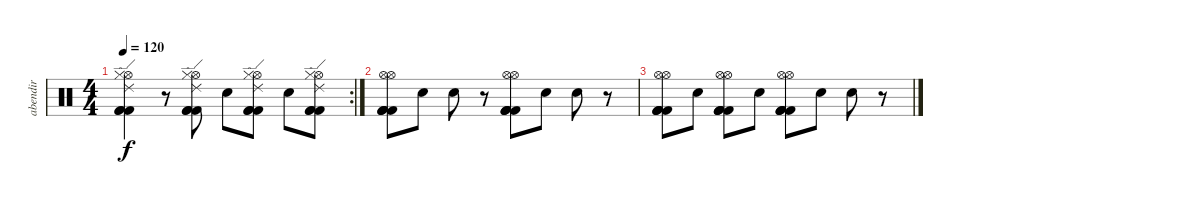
\track ("abendir" "abendir") {instrument percussion}
\staff {score}
\articulation defaults
\rc 2
\ts (4 4)
\tempo 120
\clef neutral
\ks c
("Hi-Hat (open)" "Ride (edge) 2" "Kick (hit) 2" "Kick (hit) 2" "Kick (hit) 2" "Hi-Hat (closed)").4{dy f} r.8 ("Hi-Hat (open)" "Ride (edge) 2" "Kick (hit) 2" "Kick (hit) 2" "Kick (hit) 2" "Hi-Hat (closed)").8 "Electric Snare (hit)".8 ("Hi-Hat (open)" "Ride (edge) 2" "Kick (hit) 2" "Kick (hit) 2" "Kick (hit) 2" "Hi-Hat (closed)").8 "Electric Snare (hit)".8 ("Hi-Hat (open)" "Ride (edge) 2" "Kick (hit) 2" "Kick (hit) 2" "Kick (hit) 2" "Hi-Hat (closed)").8 |
("Hi-Hat (open)" "Kick (hit) 2" "Kick (hit) 2" "Kick (hit) 2" "Kick (hit) 2" "Hi-Hat (open)").8 "Electric Snare (hit)".8 "Electric Snare (hit)".8 r.8 ("Hi-Hat (open)" "Kick (hit) 2" "Kick (hit) 2" "Kick (hit) 2" "Kick (hit) 2" "Hi-Hat (open)").8 "Electric Snare (hit)".8 "Electric Snare (hit)".8 r.8 |
("Hi-Hat (open)" "Kick (hit) 2" "Kick (hit) 2" "Kick (hit) 2" "Kick (hit) 2" "Hi-Hat (open)").8 "Electric Snare (hit)".8 ("Hi-Hat (open)" "Kick (hit) 2" "Kick (hit) 2" "Kick (hit) 2" "Kick (hit) 2" "Hi-Hat (open)").8 "Electric Snare (hit)".8 ("Hi-Hat (open)" "Kick (hit) 2" "Kick (hit) 2" "Kick (hit) 2" "Kick (hit) 2" "Hi-Hat (open)").8 "Electric Snare (hit)".8 "Electric Snare (hit)".8 r.8
